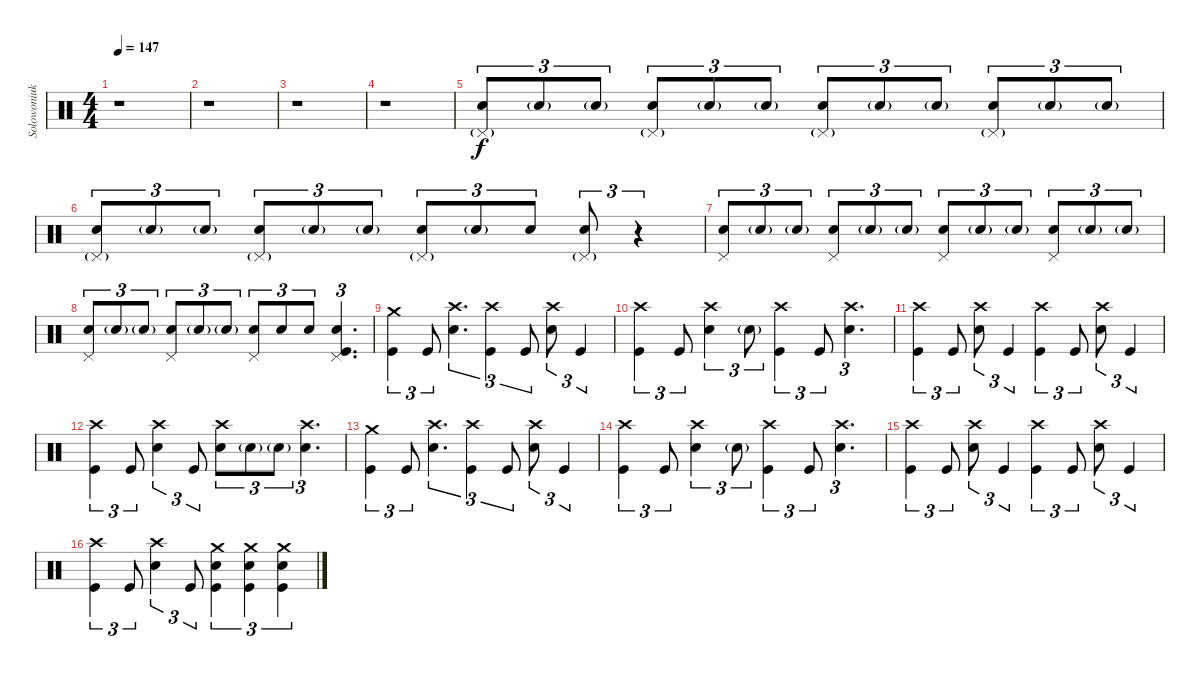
\track ("Solowoniuk " "Solowoniuk") {instrument percussion}
\staff {score}
\articulation defaults
\ts (4 4)
\tempo 147
\clef neutral
\ks c
r.1{dy f} |
r.1 |
r.1 |
r.1 |
("Pedal Hi-Hat (hit)"{g} "Snare (hit) 2").8{tu (3 2)} "Snare (hit) 2"{g}.8{tu (3 2)} "Snare (hit) 2"{g}.8{tu (3 2)} ("Pedal Hi-Hat (hit)"{g} "Snare (hit) 2").8{tu (3 2)} "Snare (hit) 2"{g}.8{tu (3 2)} "Snare (hit) 2"{g}.8{tu (3 2)} ("Pedal Hi-Hat (hit)"{g} "Snare (hit) 2").8{tu (3 2)} "Snare (hit) 2"{g}.8{tu (3 2)} "Snare (hit) 2"{g}.8{tu (3 2)} ("Pedal Hi-Hat (hit)"{g} "Snare (hit) 2").8{tu (3 2)} "Snare (hit) 2"{g}.8{tu (3 2)} "Snare (hit) 2"{g}.8{tu (3 2)} |
("Pedal Hi-Hat (hit)"{g} "Snare (hit) 2").8{tu (3 2)} "Snare (hit) 2"{g}.8{tu (3 2)} "Snare (hit) 2"{g}.8{tu (3 2)} ("Pedal Hi-Hat (hit)"{g} "Snare (hit) 2").8{tu (3 2)} "Snare (hit) 2"{g}.8{tu (3 2)} "Snare (hit) 2"{g}.8{tu (3 2)} ("Pedal Hi-Hat (hit)"{g} "Snare (hit) 2").8{tu (3 2)} "Snare (hit) 2"{g}.8{tu (3 2)} "Snare (hit) 2".8{tu (3 2)} ("Pedal Hi-Hat (hit)"{g} "Snare (hit) 2").8{tu (3 2)} r.4{tu (3 2)} |
("Pedal Hi-Hat (hit)" "Snare (hit) 2").8{tu (3 2)} "Snare (hit) 2"{g}.8{tu (3 2)} "Snare (hit) 2"{g}.8{tu (3 2)} ("Pedal Hi-Hat (hit)" "Snare (hit) 2").8{tu (3 2)} "Snare (hit) 2"{g}.8{tu (3 2)} "Snare (hit) 2"{g}.8{tu (3 2)} ("Pedal Hi-Hat (hit)" "Snare (hit) 2").8{tu (3 2)} "Snare (hit) 2"{g}.8{tu (3 2)} "Snare (hit) 2"{g}.8{tu (3 2)} ("Pedal Hi-Hat (hit)" "Snare (hit) 2").8{tu (3 2)} "Snare (hit) 2"{g}.8{tu (3 2)} "Snare (hit) 2"{g}.8{tu (3 2)} |
("Pedal Hi-Hat (hit)" "Snare (hit) 2").8{tu (3 2)} "Snare (hit) 2"{g}.8{tu (3 2)} "Snare (hit) 2"{g}.8{tu (3 2)} ("Pedal Hi-Hat (hit)" "Snare (hit) 2").8{tu (3 2)} "Snare (hit) 2"{g}.8{tu (3 2)} "Snare (hit) 2"{g}.8{tu (3 2)} ("Pedal Hi-Hat (hit)" "Snare (hit) 2").8{tu (3 2)} "Snare (hit) 2".8{tu (3 2)} "Snare (hit) 2".8{tu (3 2)} ("Pedal Hi-Hat (hit)" "Snare (hit) 2" "Kick (hit)").4{d tu (3 2)} |
("Crash medium (hit)" "Kick (hit)").4{tu (3 2)} "Kick (hit)".8{tu (3 2)} ("Crash high (hit)" "Snare (hit) 2").4{d tu (3 2)} ("Crash high (hit)" "Kick (hit)").4{tu (3 2)} "Kick (hit)".8{tu (3 2)} ("Crash high (hit)" "Snare (hit) 2").8{tu (3 2)} "Kick (hit)".4{tu (3 2)} |
("Crash high (hit)" "Kick (hit)").4{tu (3 2)} "Kick (hit)".8{tu (3 2)} ("Crash high (hit)" "Snare (hit) 2").4{tu (3 2)} "Snare (hit) 2"{g}.8{tu (3 2)} ("Crash high (hit)" "Kick (hit)").4{tu (3 2)} "Kick (hit)".8{tu (3 2)} ("Crash high (hit)" "Snare (hit) 2").4{d tu (3 2)} |
("Crash high (hit)" "Kick (hit)").4{tu (3 2)} "Kick (hit)".8{tu (3 2)} ("Crash high (hit)" "Snare (hit) 2").8{tu (3 2)} "Kick (hit)".4{tu (3 2)} ("Crash high (hit)" "Kick (hit)").4{tu (3 2)} "Kick (hit)".8{tu (3 2)} ("Crash high (hit)" "Snare (hit) 2").8{tu (3 2)} "Kick (hit)".4{tu (3 2)} |
("Crash high (hit)" "Kick (hit)").4{tu (3 2)} "Kick (hit)".8{tu (3 2)} ("Crash high (hit)" "Snare (hit) 2").4{tu (3 2)} "Kick (hit)".8{tu (3 2)} ("Crash high (hit)" "Snare (hit) 2").8{tu (3 2)} "Snare (hit) 2"{g}.8{tu (3 2)} "Snare (hit) 2"{g}.8{tu (3 2)} ("Crash high (hit)" "Snare (hit) 2").4{d tu (3 2)} |
("Crash medium (hit)" "Kick (hit)").4{tu (3 2)} "Kick (hit)".8{tu (3 2)} ("Crash high (hit)" "Snare (hit) 2").4{d tu (3 2)} ("Crash high (hit)" "Kick (hit)").4{tu (3 2)} "Kick (hit)".8{tu (3 2)} ("Crash high (hit)" "Snare (hit) 2").8{tu (3 2)} "Kick (hit)".4{tu (3 2)} |
("Crash high (hit)" "Kick (hit)").4{tu (3 2)} "Kick (hit)".8{tu (3 2)} ("Crash high (hit)" "Snare (hit) 2").4{tu (3 2)} "Snare (hit) 2"{g}.8{tu (3 2)} ("Crash high (hit)" "Kick (hit)").4{tu (3 2)} "Kick (hit)".8{tu (3 2)} ("Crash high (hit)" "Snare (hit) 2").4{d tu (3 2)} |
("Crash high (hit)" "Kick (hit)").4{tu (3 2)} "Kick (hit)".8{tu (3 2)} ("Crash high (hit)" "Snare (hit) 2").8{tu (3 2)} "Kick (hit)".4{tu (3 2)} ("Crash high (hit)" "Kick (hit)").4{tu (3 2)} "Kick (hit)".8{tu (3 2)} ("Crash high (hit)" "Snare (hit) 2").8{tu (3 2)} "Kick (hit)".4{tu (3 2)} |
("Crash high (hit)" "Kick (hit)").4{tu (3 2)} "Kick (hit)".8{tu (3 2)} ("Crash high (hit)" "Snare (hit) 2").4{tu (3 2)} "Kick (hit)".8{tu (3 2)} ("Crash medium (hit)" "Snare (hit) 2" "Kick (hit)").4{tu (3 2)} ("Crash medium (hit)" "Snare (hit) 2" "Kick (hit)").4{tu (3 2)} ("Crash medium (hit)" "Snare (hit) 2" "Kick (hit)").4{tu (3 2)}
